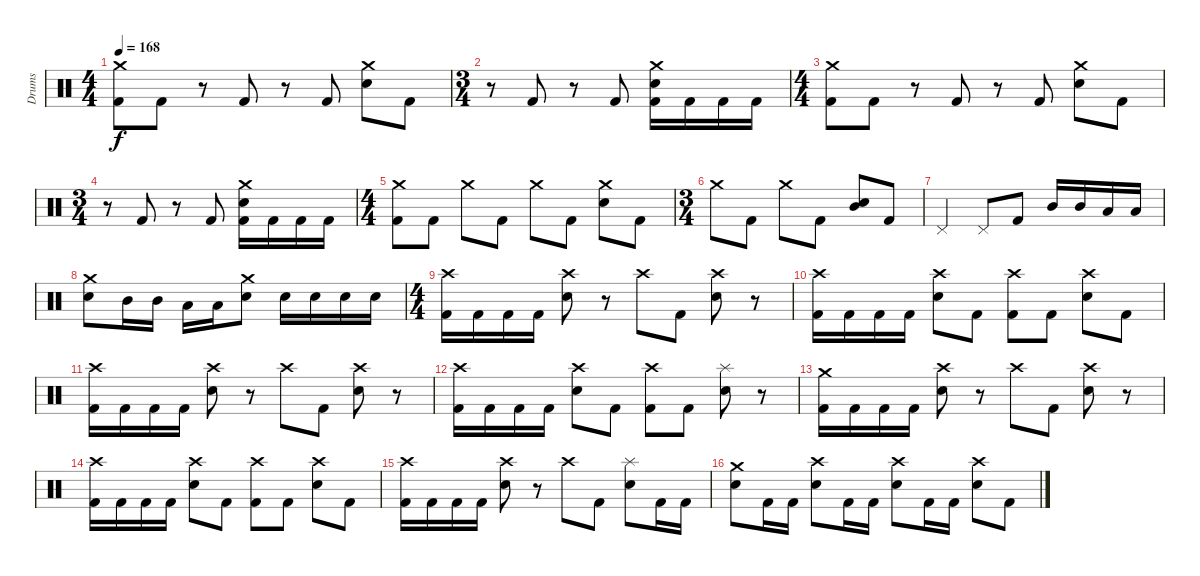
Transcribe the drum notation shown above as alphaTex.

\track ("Drums" "Drums") {instrument percussion}
\staff {score}
\articulation defaults
\ts (4 4)
\tempo 168
\clef neutral
\ks c
("Crash medium (hit)" "Kick (hit) 2").8{dy f} "Kick (hit) 2".8 r.8 "Kick (hit) 2".8 r.8 "Kick (hit) 2".8 ("Crash medium (hit)" "Electric Snare (hit)").8 "Kick (hit) 2".8 |
\ts (3 4)
r.8 "Kick (hit) 2".8 r.8 "Kick (hit) 2".8 ("Crash medium (hit)" "Electric Snare (hit)" "Kick (hit) 2").16 "Kick (hit) 2".16 "Kick (hit) 2".16 "Kick (hit) 2".16 |
\ts (4 4)
("Crash medium (hit)" "Kick (hit) 2").8 "Kick (hit) 2".8 r.8 "Kick (hit) 2".8 r.8 "Kick (hit) 2".8 ("Crash medium (hit)" "Electric Snare (hit)").8 "Kick (hit) 2".8 |
\ts (3 4)
r.8 "Kick (hit) 2".8 r.8 "Kick (hit) 2".8 ("Crash medium (hit)" "Electric Snare (hit)" "Kick (hit) 2").16 "Kick (hit) 2".16 "Kick (hit) 2".16 "Kick (hit) 2".16 |
\ts (4 4)
("Crash medium (hit)" "Kick (hit) 2").8 "Kick (hit) 2".8 "Crash medium (hit)".8 "Kick (hit) 2".8 "Crash medium (hit)".8 "Kick (hit) 2".8 ("Crash medium (hit)" "Electric Snare (hit)").8 "Kick (hit) 2".8 |
\ts (3 4)
"Crash medium (hit)".8 "Kick (hit) 2".8 "Crash medium (hit)".8 "Kick (hit) 2".8 ("Mid Tom (hit)" "Electric Snare (hit)").8 "Kick (hit) 2".8 |
"Pedal Hi-Hat (hit)".4 "Pedal Hi-Hat (hit)".8 "Kick (hit) 2".8 "Mid Tom (hit)".16 "Mid Tom (hit)".16 "Low Tom (hit)".16 "Low Floor Tom (hit)".16 |
("Crash medium (hit)" "Electric Snare (hit)").8 "Mid Tom (hit)".16 "Mid Tom (hit)".16 "Low Tom (hit)".16 "Low Floor Tom (hit)".16 ("Crash medium (hit)" "Electric Snare (hit)").8 "Electric Snare (hit)".16 "Electric Snare (hit)".16 "Electric Snare (hit)".16 "Electric Snare (hit)".16 |
\ts (4 4)
("Crash high (hit)" "Kick (hit) 2").16 "Kick (hit) 2".16 "Kick (hit) 2".16 "Kick (hit) 2".16 ("Crash high (hit)" "Electric Snare (hit)").8 r.8 "Crash high (hit)".8 "Kick (hit) 2".8 ("Crash high (hit)" "Electric Snare (hit)").8 r.8 |
("Crash high (hit)" "Kick (hit) 2").16 "Kick (hit) 2".16 "Kick (hit) 2".16 "Kick (hit) 2".16 ("Crash high (hit)" "Electric Snare (hit)").8 "Kick (hit) 2".8 ("Crash high (hit)" "Kick (hit) 2").8 "Kick (hit) 2".8 ("Crash high (hit)" "Electric Snare (hit)").8 "Kick (hit) 2".8 |
("Crash high (hit)" "Kick (hit) 2").16 "Kick (hit) 2".16 "Kick (hit) 2".16 "Kick (hit) 2".16 ("Crash high (hit)" "Electric Snare (hit)").8 r.8 "Crash high (hit)".8 "Kick (hit) 2".8 ("Crash high (hit)" "Electric Snare (hit)").8 r.8 |
("Crash high (hit)" "Kick (hit) 2").16 "Kick (hit) 2".16 "Kick (hit) 2".16 "Kick (hit) 2".16 ("Crash high (hit)" "Electric Snare (hit)").8 "Kick (hit) 2".8 ("Crash high (hit)" "Kick (hit) 2").8 "Kick (hit) 2".8 ("Splash (hit)" "Electric Snare (hit)").8 r.8 |
("Crash medium (hit)" "Kick (hit) 2").16 "Kick (hit) 2".16 "Kick (hit) 2".16 "Kick (hit) 2".16 ("Crash high (hit)" "Electric Snare (hit)").8 r.8 "Crash high (hit)".8 "Kick (hit) 2".8 ("Crash high (hit)" "Electric Snare (hit)").8 r.8 |
("Crash high (hit)" "Kick (hit) 2").16 "Kick (hit) 2".16 "Kick (hit) 2".16 "Kick (hit) 2".16 ("Crash high (hit)" "Electric Snare (hit)").8 "Kick (hit) 2".8 ("Crash high (hit)" "Kick (hit) 2").8 "Kick (hit) 2".8 ("Crash high (hit)" "Electric Snare (hit)").8 "Kick (hit) 2".8 |
("Crash high (hit)" "Kick (hit) 2").16 "Kick (hit) 2".16 "Kick (hit) 2".16 "Kick (hit) 2".16 ("Crash high (hit)" "Electric Snare (hit)").8 r.8 "Crash high (hit)".8 "Kick (hit) 2".8 ("Splash (hit)" "Electric Snare (hit)").8 "Kick (hit) 2".16 "Kick (hit) 2".16 |
("Crash medium (hit)" "Electric Snare (hit)").8 "Kick (hit) 2".16 "Kick (hit) 2".16 ("Crash high (hit)" "Electric Snare (hit)").8 "Kick (hit) 2".16 "Kick (hit) 2".16 ("Crash high (hit)" "Electric Snare (hit)").8 "Kick (hit) 2".16 "Kick (hit) 2".16 ("Crash high (hit)" "Electric Snare (hit)").8 "Kick (hit) 2".8
